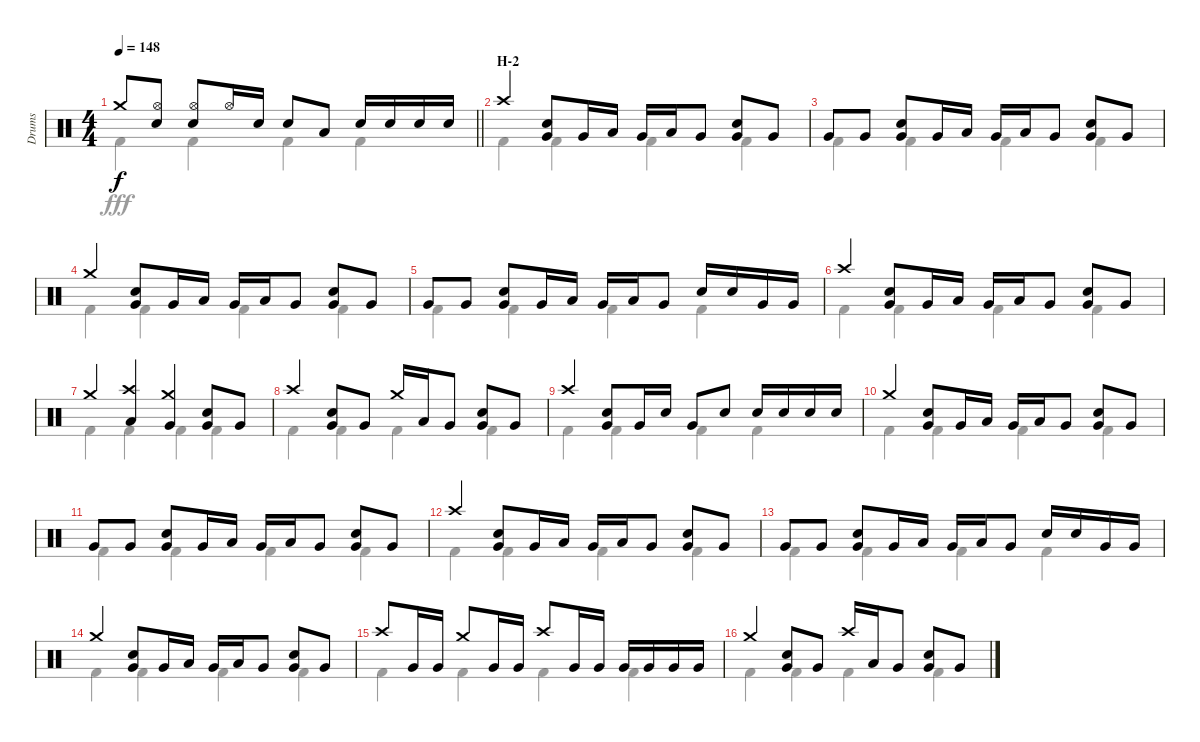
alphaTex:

\track ("Drums" "Drums") {instrument percussion}
\staff {score}
\articulation defaults
\voice
\ts (4 4)
\tempo 148
\clef neutral
\barLineRight lightlight
\ks c "Crash medium (hit)".8{dy f}
("Hi-Hat (open)" "Snare (hit) 2").8 ("Hi-Hat (open)" "Snare (hit) 2").8 "Hi-Hat (open)".16 "Snare (hit) 2".16 "Snare (hit) 2".8 "Low Tom (hit)".8 "Snare (hit) 2".16 "Snare (hit) 2".16 "Snare (hit) 2".16 "Snare (hit) 2".16 |
\section ("" "H-2")
"Crash high (hit)".4 ("Snare (hit) 2" "Very Low Tom (hit)").8 "Very Low Tom (hit)".16 "Low Tom (hit)".16 "Very Low Tom (hit)".16 "Low Tom (hit)".16 "Very Low Tom (hit)".8 ("Snare (hit) 2" "Very Low Tom (hit)").8 "Very Low Tom (hit)".8 |
"Very Low Tom (hit)".8 "Very Low Tom (hit)".8 ("Snare (hit) 2" "Very Low Tom (hit)").8 "Very Low Tom (hit)".16 "Low Tom (hit)".16 "Very Low Tom (hit)".16 "Low Tom (hit)".16 "Very Low Tom (hit)".8 ("Snare (hit) 2" "Very Low Tom (hit)").8 "Very Low Tom (hit)".8 |
"Crash medium (hit)".4 ("Snare (hit) 2" "Very Low Tom (hit)").8 "Very Low Tom (hit)".16 "Low Tom (hit)".16 "Very Low Tom (hit)".16 "Low Tom (hit)".16 "Very Low Tom (hit)".8 ("Snare (hit) 2" "Very Low Tom (hit)").8 "Very Low Tom (hit)".8 |
"Very Low Tom (hit)".8 "Very Low Tom (hit)".8 ("Snare (hit) 2" "Very Low Tom (hit)").8 "Very Low Tom (hit)".16 "Low Tom (hit)".16 "Very Low Tom (hit)".16 "Low Tom (hit)".16 "Very Low Tom (hit)".8 "Snare (hit) 2".16 "Snare (hit) 2".16 "Very Low Tom (hit)".16 "Very Low Tom (hit)".16 |
"Crash high (hit)".4 ("Snare (hit) 2" "Very Low Tom (hit)").8 "Very Low Tom (hit)".16 "Low Tom (hit)".16 "Very Low Tom (hit)".16 "Low Tom (hit)".16 "Very Low Tom (hit)".8 ("Snare (hit) 2" "Very Low Tom (hit)").8 "Very Low Tom (hit)".8 |
"Crash medium (hit)".4 ("Crash high (hit)" "Low Tom (hit)").4 ("Crash medium (hit)" "Very Low Tom (hit)").4 ("Snare (hit) 2" "Very Low Tom (hit)").8 "Very Low Tom (hit)".8 |
"Crash high (hit)".4 ("Snare (hit) 2" "Very Low Tom (hit)").8 "Very Low Tom (hit)".8 "Crash medium (hit)".16 "Low Tom (hit)".16 "Very Low Tom (hit)".8 ("Snare (hit) 2" "Very Low Tom (hit)").8 "Very Low Tom (hit)".8 |
"Crash high (hit)".4 ("Snare (hit) 2" "Very Low Tom (hit)").8 "Very Low Tom (hit)".16 "Snare (hit) 2".16 "Very Low Tom (hit)".8 "Snare (hit) 2".8 "Snare (hit) 2".16 "Snare (hit) 2".16 "Snare (hit) 2".16 "Snare (hit) 2".16 |
"Crash medium (hit)".4 ("Snare (hit) 2" "Very Low Tom (hit)").8 "Very Low Tom (hit)".16 "Low Tom (hit)".16 "Very Low Tom (hit)".16 "Low Tom (hit)".16 "Very Low Tom (hit)".8 ("Snare (hit) 2" "Very Low Tom (hit)").8 "Very Low Tom (hit)".8 |
"Very Low Tom (hit)".8 "Very Low Tom (hit)".8 ("Snare (hit) 2" "Very Low Tom (hit)").8 "Very Low Tom (hit)".16 "Low Tom (hit)".16 "Very Low Tom (hit)".16 "Low Tom (hit)".16 "Very Low Tom (hit)".8 ("Snare (hit) 2" "Very Low Tom (hit)").8 "Very Low Tom (hit)".8 |
"Crash high (hit)".4 ("Snare (hit) 2" "Very Low Tom (hit)").8 "Very Low Tom (hit)".16 "Low Tom (hit)".16 "Very Low Tom (hit)".16 "Low Tom (hit)".16 "Very Low Tom (hit)".8 ("Snare (hit) 2" "Very Low Tom (hit)").8 "Very Low Tom (hit)".8 |
"Very Low Tom (hit)".8 "Very Low Tom (hit)".8 ("Snare (hit) 2" "Very Low Tom (hit)").8 "Very Low Tom (hit)".16 "Low Tom (hit)".16 "Very Low Tom (hit)".16 "Low Tom (hit)".16 "Very Low Tom (hit)".8 "Snare (hit) 2".16 "Snare (hit) 2".16 "Very Low Tom (hit)".16 "Very Low Tom (hit)".16 |
"Crash medium (hit)".4 ("Snare (hit) 2" "Very Low Tom (hit)").8 "Very Low Tom (hit)".16 "Low Tom (hit)".16 "Very Low Tom (hit)".16 "Low Tom (hit)".16 "Very Low Tom (hit)".8 ("Snare (hit) 2" "Very Low Tom (hit)").8 "Very Low Tom (hit)".8 |
"Crash high (hit)".8 "Very Low Tom (hit)".16 "Very Low Tom (hit)".16 "Crash medium (hit)".8 "Very Low Tom (hit)".16 "Very Low Tom (hit)".16 "Crash high (hit)".8 "Very Low Tom (hit)".16 "Very Low Tom (hit)".16 "Very Low Tom (hit)".16 "Very Low Tom (hit)".16 "Very Low Tom (hit)".16 "Very Low Tom (hit)".16 |
"Crash medium (hit)".4 ("Snare (hit) 2" "Very Low Tom (hit)").8 "Very Low Tom (hit)".8 "Crash high (hit)".16 "Low Tom (hit)".16 "Very Low Tom (hit)".8 ("Snare (hit) 2" "Very Low Tom (hit)").8 "Very Low Tom (hit)".8
\voice
\clef neutral
\ottava regular
\simile none
\barLineRight lightlight
\ks c "Kick (hit) 2".4{dy fff} "Kick (hit) 2".4 "Kick (hit) 2".4 "Kick (hit) 2".4
|
"Kick (hit) 2".4 "Kick (hit) 2".4 "Kick (hit) 2".4 "Kick (hit) 2".4 |
"Kick (hit) 2".4 "Kick (hit) 2".4 "Kick (hit) 2".4 "Kick (hit) 2".4 |
"Kick (hit) 2".4 "Kick (hit) 2".4 "Kick (hit) 2".4 "Kick (hit) 2".4 |
"Kick (hit) 2".4 "Kick (hit) 2".4 "Kick (hit) 2".4 "Kick (hit) 2".4 |
"Kick (hit) 2".4 "Kick (hit) 2".4 "Kick (hit) 2".4 "Kick (hit) 2".4 |
"Kick (hit) 2".4 "Kick (hit) 2".4 "Kick (hit) 2".4 "Kick (hit) 2".4 |
"Kick (hit) 2".4 "Kick (hit) 2".4 "Kick (hit) 2".4 "Kick (hit) 2".4 |
"Kick (hit) 2".4 "Kick (hit) 2".4 "Kick (hit) 2".4 "Kick (hit) 2".4 |
"Kick (hit) 2".4 "Kick (hit) 2".4 "Kick (hit) 2".4 "Kick (hit) 2".4 |
"Kick (hit) 2".4 "Kick (hit) 2".4 "Kick (hit) 2".4 "Kick (hit) 2".4 |
"Kick (hit) 2".4 "Kick (hit) 2".4 "Kick (hit) 2".4 "Kick (hit) 2".4 |
"Kick (hit) 2".4 "Kick (hit) 2".4 "Kick (hit) 2".4 "Kick (hit) 2".4 |
"Kick (hit) 2".4 "Kick (hit) 2".4 "Kick (hit) 2".4 "Kick (hit) 2".4 |
"Kick (hit) 2".4 "Kick (hit) 2".4 "Kick (hit) 2".4 "Kick (hit) 2".4 |
"Kick (hit) 2".4 "Kick (hit) 2".4 "Kick (hit) 2".4 "Kick (hit) 2".4
